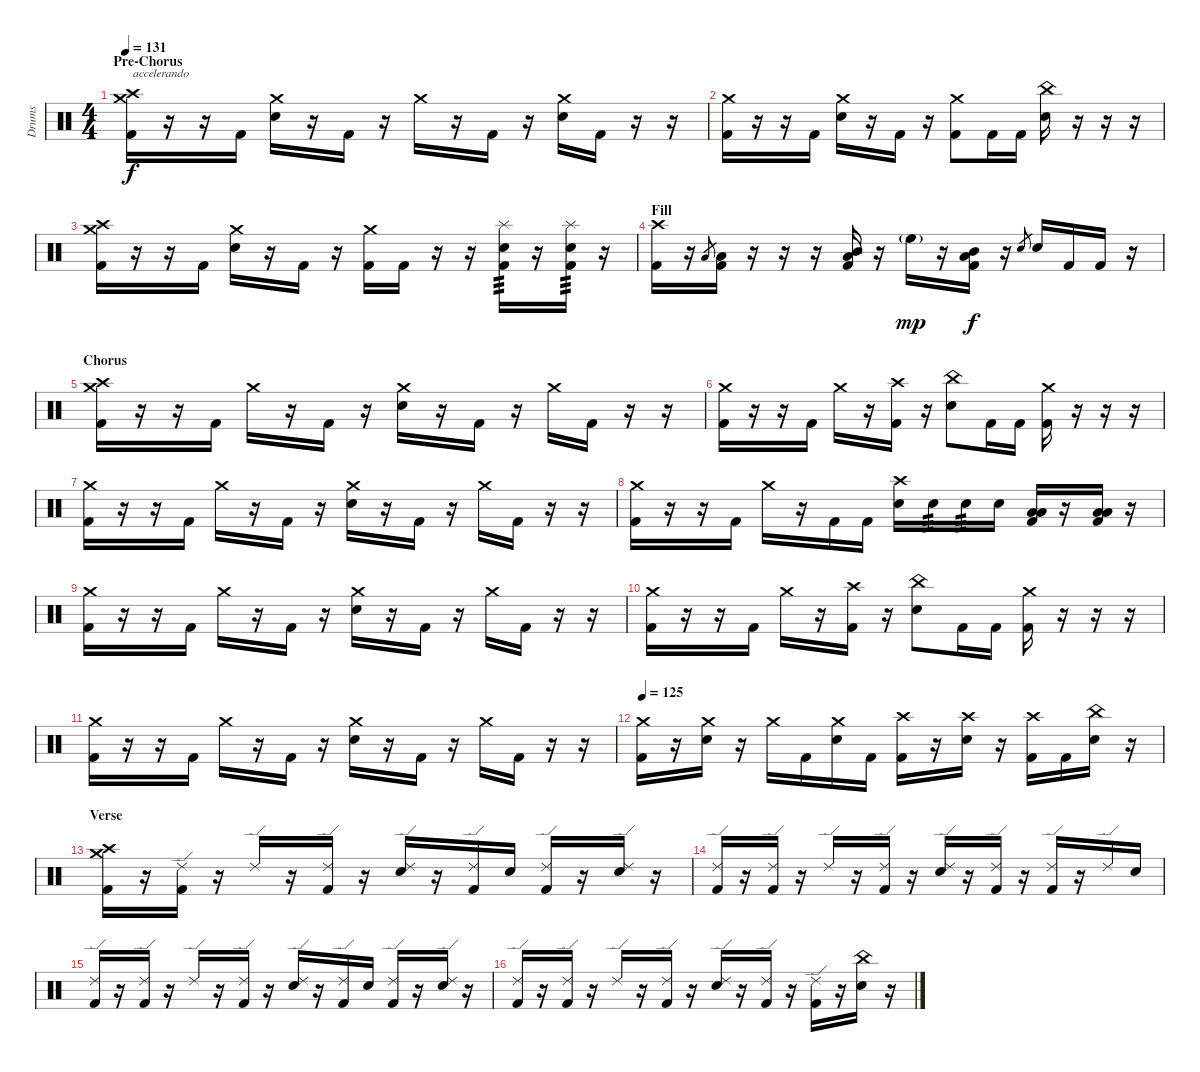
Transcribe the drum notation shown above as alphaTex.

\track ("Drums" "Drums") {instrument percussion}
\staff {score}
\articulation defaults
\ts (4 4)
\section ("" "Pre-Chorus")
\tempo 131
\clef neutral
\ks c
("Crash medium (hit)" "Crash high (hit)" "Kick (hit) 2").16{txt "accelerando" dy f} r.16 r.16 "Kick (hit) 2".16 ("Crash medium (hit)" "Electric Snare (hit)").16 r.16 "Kick (hit) 2".16 r.16 "Crash medium (hit)".16 r.16 "Kick (hit) 2".16 r.16 ("Crash medium (hit)" "Electric Snare (hit)").16 "Kick (hit) 2".16 r.16 r.16 |
("Crash medium (hit)" "Kick (hit) 2").16 r.16 r.16 "Kick (hit) 2".16 ("Crash medium (hit)" "Electric Snare (hit)").16 r.16 "Kick (hit) 2".16 r.16 ("Crash medium (hit)" "Kick (hit) 2").8 "Kick (hit) 2".16 "Kick (hit) 2".16 ("China (hit)" "Electric Snare (hit)").16 r.16 r.16 r.16 |
("Crash medium (hit)" "Crash high (hit)" "Kick (hit) 2").16 r.16 r.16 "Kick (hit) 2".16 ("Crash medium (hit)" "Electric Snare (hit)").16 r.16 "Kick (hit) 2".16 r.16 ("Crash medium (hit)" "Kick (hit) 2").16 "Kick (hit) 2".16 r.16 r.16 ("Splash (hit)" "Electric Snare (hit)" "Kick (hit) 2").16{tp 3} r.16 ("Splash (hit)" "Electric Snare (hit)" "Kick (hit) 2").16{tp 3} r.16 |
\section ("" "Fill")
("Crash high (hit)" "Kick (hit) 2").16 r.16 "Low Tom (hit)".8{gr} ("Low Tom (hit)" "Kick (hit) 2").16 r.16 r.16 r.16 ("Mid Tom (hit)" "Low Floor Tom (hit)" "Kick (hit) 2").16 r.16 "High Floor Tom (hit)"{g}.16{dy mp} r.16 ("Mid Tom (hit)" "Low Floor Tom (hit)" "Kick (hit) 2").16{dy f} r.16 "Electric Snare (hit)".8{gr} "Electric Snare (hit)".16 "Kick (hit) 2".16 "Kick (hit) 2".16 r.16 |
\section ("" "Chorus")
("Crash medium (hit)" "Crash high (hit)" "Kick (hit) 2").16 r.16 r.16 "Kick (hit) 2".16 "Crash medium (hit)".16 r.16 "Kick (hit) 2".16 r.16 ("Crash medium (hit)" "Electric Snare (hit)").16 r.16 "Kick (hit) 2".16 r.16 "Crash medium (hit)".16 "Kick (hit) 2".16 r.16 r.16 |
("Crash medium (hit)" "Kick (hit) 2").16 r.16 r.16 "Kick (hit) 2".16 "Crash medium (hit)".16 r.16 ("Crash high (hit)" "Kick (hit) 2").16 r.16 ("China (hit)" "Electric Snare (hit)").8 "Kick (hit) 2".16 "Kick (hit) 2".16 ("Crash medium (hit)" "Kick (hit) 2").16 r.16 r.16 r.16 |
("Crash medium (hit)" "Kick (hit) 2").16 r.16 r.16 "Kick (hit) 2".16 "Crash medium (hit)".16 r.16 "Kick (hit) 2".16 r.16 ("Crash medium (hit)" "Electric Snare (hit)").16 r.16 "Kick (hit) 2".16 r.16 "Crash medium (hit)".16 "Kick (hit) 2".16 r.16 r.16 |
("Crash medium (hit)" "Kick (hit) 2").16 r.16 r.16 "Kick (hit) 2".16 "Crash medium (hit)".16 r.16 "Kick (hit) 2".16 "Kick (hit) 2".16 ("Crash high (hit)" "Electric Snare (hit)").16 "Electric Snare (hit)".16{tp 3} "Electric Snare (hit)".16{tp 3} "Electric Snare (hit)".16 ("Low Tom (hit)" "Low Floor Tom (hit)" "Kick (hit) 2").16 r.16 ("Low Tom (hit)" "Low Floor Tom (hit)" "Kick (hit) 2").16 r.16 |
("Crash medium (hit)" "Kick (hit) 2").16 r.16 r.16 "Kick (hit) 2".16 "Crash medium (hit)".16 r.16 "Kick (hit) 2".16 r.16 ("Crash medium (hit)" "Electric Snare (hit)").16 r.16 "Kick (hit) 2".16 r.16 "Crash medium (hit)".16 "Kick (hit) 2".16 r.16 r.16 |
("Crash medium (hit)" "Kick (hit) 2").16 r.16 r.16 "Kick (hit) 2".16 "Crash medium (hit)".16 r.16 ("Crash high (hit)" "Kick (hit) 2").16 r.16 ("China (hit)" "Electric Snare (hit)").8 "Kick (hit) 2".16 "Kick (hit) 2".16 ("Crash medium (hit)" "Kick (hit) 2").16 r.16 r.16 r.16 |
("Crash medium (hit)" "Kick (hit) 2").16 r.16 r.16 "Kick (hit) 2".16 "Crash medium (hit)".16 r.16 "Kick (hit) 2".16 r.16 ("Crash medium (hit)" "Electric Snare (hit)").16 r.16 "Kick (hit) 2".16 r.16 "Crash medium (hit)".16 "Kick (hit) 2".16 r.16 r.16 |
\tempo 125
("Crash medium (hit)" "Kick (hit) 2").16 r.16 ("Crash medium (hit)" "Electric Snare (hit)").16 r.16 "Crash medium (hit)".16 "Kick (hit) 2".16 ("Crash medium (hit)" "Electric Snare (hit)").16 "Kick (hit) 2".16 ("Crash high (hit)" "Kick (hit) 2").16 r.16 ("Crash high (hit)" "Electric Snare (hit)").16 r.16 ("Crash high (hit)" "Kick (hit) 2").16 "Kick (hit) 2".16 ("China (hit)" "Electric Snare (hit)").16 r.16 |
\section ("" "Verse")
("Crash medium (hit)" "Crash high (hit)" "Kick (hit) 2").16 r.16 ("Ride (edge) 2" "Kick (hit) 2").16 r.16 "Ride (edge) 2".16 r.16 ("Ride (edge) 2" "Kick (hit) 2").16 r.16 ("Ride (edge) 2" "Electric Snare (hit)").16 r.16 ("Ride (edge) 2" "Kick (hit) 2").16 "Electric Snare (hit)".16 ("Ride (edge) 2" "Kick (hit) 2").16 r.16 ("Ride (edge) 2" "Electric Snare (hit)").16 r.16 |
("Ride (edge) 2" "Kick (hit) 2").16 r.16 ("Ride (edge) 2" "Kick (hit) 2").16 r.16 "Ride (edge) 2".16 r.16 ("Ride (edge) 2" "Kick (hit) 2").16 r.16 ("Ride (edge) 2" "Electric Snare (hit)").16 r.16 ("Ride (edge) 2" "Kick (hit) 2").16 r.16 ("Ride (edge) 2" "Kick (hit) 2").16 r.16 "Ride (edge) 2".16 "Electric Snare (hit)".16 |
("Ride (edge) 2" "Kick (hit) 2").16 r.16 ("Ride (edge) 2" "Kick (hit) 2").16 r.16 "Ride (edge) 2".16 r.16 ("Ride (edge) 2" "Kick (hit) 2").16 r.16 ("Ride (edge) 2" "Electric Snare (hit)").16 r.16 ("Ride (edge) 2" "Kick (hit) 2").16 "Electric Snare (hit)".16 ("Ride (edge) 2" "Kick (hit) 2").16 r.16 ("Ride (edge) 2" "Electric Snare (hit)").16 r.16 |
("Ride (edge) 2" "Kick (hit) 2").16 r.16 ("Ride (edge) 2" "Kick (hit) 2").16 r.16 "Ride (edge) 2".16 r.16 ("Ride (edge) 2" "Kick (hit) 2").16 r.16 ("Ride (edge) 2" "Electric Snare (hit)").16 r.16 ("Ride (edge) 2" "Kick (hit) 2").16 r.16 ("Ride (edge) 2" "Kick (hit) 2").16 r.16 ("China (hit)" "Electric Snare (hit)").16 r.16
